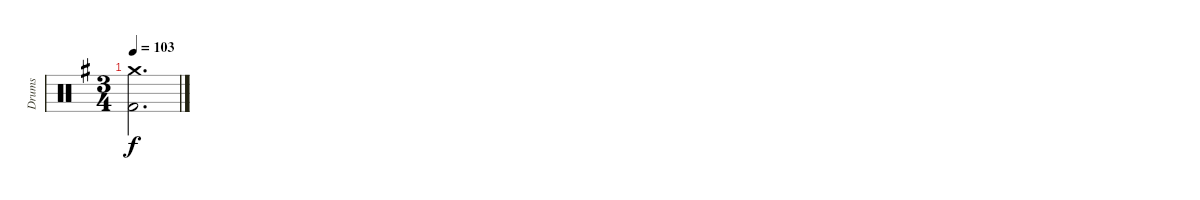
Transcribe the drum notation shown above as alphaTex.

\track ("Drums" "Drums") {instrument percussion}
\staff {score}
\articulation defaults
\ts (3 4)
\tempo 103
\clef neutral
\ks eminor
("Crash medium (hit)" "Kick (hit) 2").2{d dy f}
